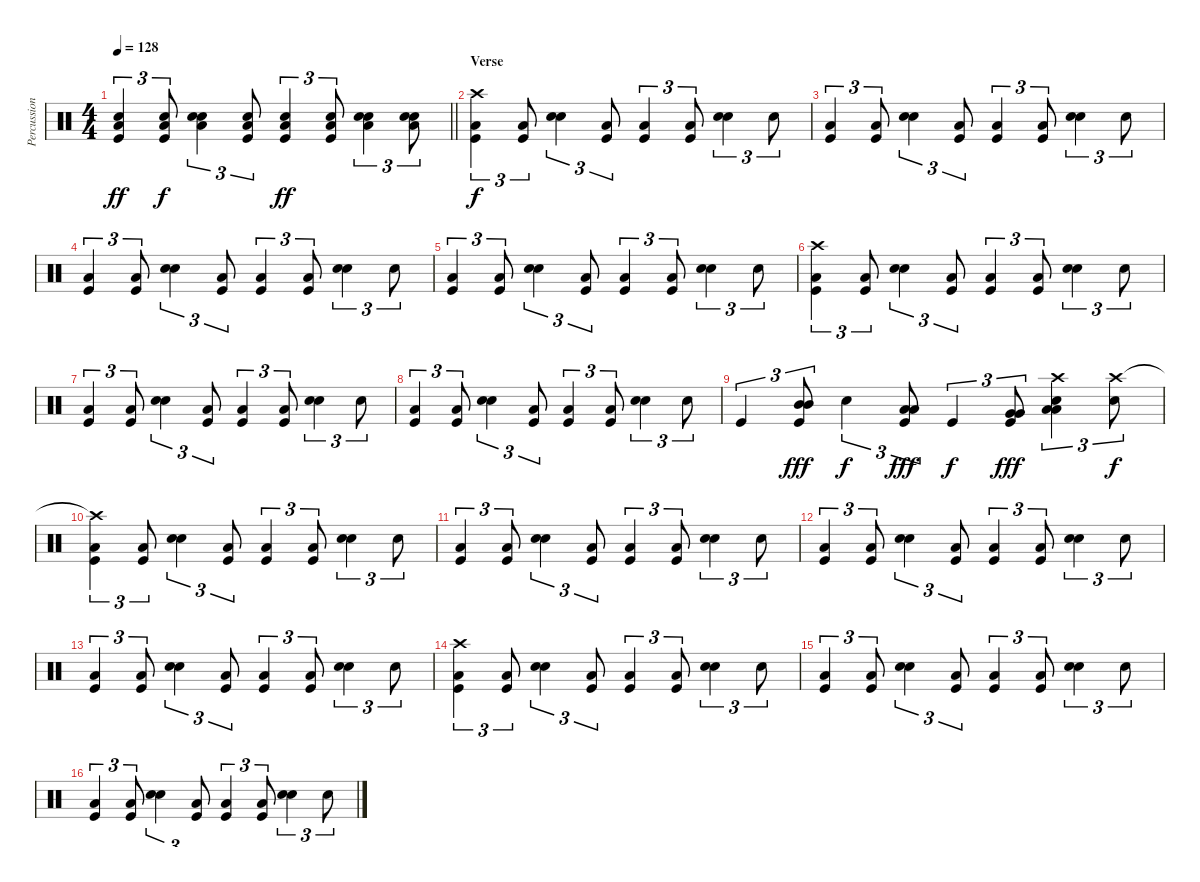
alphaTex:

\track ("Percussion" "Percussion") {instrument percussion}
\staff {score}
\articulation defaults
\ts (4 4)
\tempo 128
\clef neutral
\barLineRight lightlight
\ks c
("Electric Snare (hit)" "Low Floor Tom (hit)" "Kick (hit)").4{tu (3 2) dy ff} ("Electric Snare (hit)" "Low Floor Tom (hit)" "Kick (hit)").8{tu (3 2) dy f} ("Hand Clap (hit)" "Electric Snare (hit)" "Low Floor Tom (hit)").4{tu (3 2)} ("Electric Snare (hit)" "Low Floor Tom (hit)" "Kick (hit)").8{tu (3 2)} ("Electric Snare (hit)" "Low Floor Tom (hit)" "Kick (hit)").4{tu (3 2) dy ff} ("Electric Snare (hit)" "Low Floor Tom (hit)" "Kick (hit)").8{tu (3 2)} ("Hand Clap (hit)" "Electric Snare (hit)" "Low Floor Tom (hit)").4{tu (3 2)} ("Hand Clap (hit)" "Electric Snare (hit)" "Low Floor Tom (hit)").8{tu (3 2)} |
\section ("" "Verse")
("Crash high (hit)" "Low Floor Tom (hit)" "Kick (hit)").4{tu (3 2) dy f} ("Low Floor Tom (hit)" "Kick (hit)").8{tu (3 2)} ("Hand Clap (hit)" "Electric Snare (hit)").4{tu (3 2)} ("Low Floor Tom (hit)" "Kick (hit)").8{tu (3 2)} ("Low Floor Tom (hit)" "Kick (hit)").4{tu (3 2)} ("Low Floor Tom (hit)" "Kick (hit)").8{tu (3 2)} ("Hand Clap (hit)" "Electric Snare (hit)").4{tu (3 2)} "Hand Clap (hit)".8{tu (3 2)} |
("Low Floor Tom (hit)" "Kick (hit)").4{tu (3 2)} ("Low Floor Tom (hit)" "Kick (hit)").8{tu (3 2)} ("Hand Clap (hit)" "Electric Snare (hit)").4{tu (3 2)} ("Low Floor Tom (hit)" "Kick (hit)").8{tu (3 2)} ("Low Floor Tom (hit)" "Kick (hit)").4{tu (3 2)} ("Low Floor Tom (hit)" "Kick (hit)").8{tu (3 2)} ("Hand Clap (hit)" "Electric Snare (hit)").4{tu (3 2)} "Hand Clap (hit)".8{tu (3 2)} |
("Low Floor Tom (hit)" "Kick (hit)").4{tu (3 2)} ("Low Floor Tom (hit)" "Kick (hit)").8{tu (3 2)} ("Hand Clap (hit)" "Electric Snare (hit)").4{tu (3 2)} ("Low Floor Tom (hit)" "Kick (hit)").8{tu (3 2)} ("Low Floor Tom (hit)" "Kick (hit)").4{tu (3 2)} ("Low Floor Tom (hit)" "Kick (hit)").8{tu (3 2)} ("Hand Clap (hit)" "Electric Snare (hit)").4{tu (3 2)} "Hand Clap (hit)".8{tu (3 2)} |
("Low Floor Tom (hit)" "Kick (hit)").4{tu (3 2)} ("Low Floor Tom (hit)" "Kick (hit)").8{tu (3 2)} ("Hand Clap (hit)" "Electric Snare (hit)").4{tu (3 2)} ("Low Floor Tom (hit)" "Kick (hit)").8{tu (3 2)} ("Low Floor Tom (hit)" "Kick (hit)").4{tu (3 2)} ("Low Floor Tom (hit)" "Kick (hit)").8{tu (3 2)} ("Hand Clap (hit)" "Electric Snare (hit)").4{tu (3 2)} "Hand Clap (hit)".8{tu (3 2)} |
("Crash high (hit)" "Low Floor Tom (hit)" "Kick (hit)").4{tu (3 2)} ("Low Floor Tom (hit)" "Kick (hit)").8{tu (3 2)} ("Hand Clap (hit)" "Electric Snare (hit)").4{tu (3 2)} ("Low Floor Tom (hit)" "Kick (hit)").8{tu (3 2)} ("Low Floor Tom (hit)" "Kick (hit)").4{tu (3 2)} ("Low Floor Tom (hit)" "Kick (hit)").8{tu (3 2)} ("Hand Clap (hit)" "Electric Snare (hit)").4{tu (3 2)} "Hand Clap (hit)".8{tu (3 2)} |
("Low Floor Tom (hit)" "Kick (hit)").4{tu (3 2)} ("Low Floor Tom (hit)" "Kick (hit)").8{tu (3 2)} ("Hand Clap (hit)" "Electric Snare (hit)").4{tu (3 2)} ("Low Floor Tom (hit)" "Kick (hit)").8{tu (3 2)} ("Low Floor Tom (hit)" "Kick (hit)").4{tu (3 2)} ("Low Floor Tom (hit)" "Kick (hit)").8{tu (3 2)} ("Hand Clap (hit)" "Electric Snare (hit)").4{tu (3 2)} "Hand Clap (hit)".8{tu (3 2)} |
("Low Floor Tom (hit)" "Kick (hit)").4{tu (3 2)} ("Low Floor Tom (hit)" "Kick (hit)").8{tu (3 2)} ("Hand Clap (hit)" "Electric Snare (hit)").4{tu (3 2)} ("Low Floor Tom (hit)" "Kick (hit)").8{tu (3 2)} ("Low Floor Tom (hit)" "Kick (hit)").4{tu (3 2)} ("Low Floor Tom (hit)" "Kick (hit)").8{tu (3 2)} ("Hand Clap (hit)" "Electric Snare (hit)").4{tu (3 2)} "Hand Clap (hit)".8{tu (3 2)} |
"Kick (hit)".4{tu (3 2)} ("Mid Tom (hit)" "Mid Tom (hit)" "Kick (hit)").8{tu (3 2) dy fff} "Hand Clap (hit)".4{tu (3 2) dy f} ("Low Tom (hit)" "Low Tom (hit)" "Kick (hit)").8{tu (3 2) dy fff} "Kick (hit)".4{tu (3 2) dy f} ("Very Low Tom (hit)" "Very Low Tom (hit)" "Kick (hit)").8{tu (3 2) dy fff} ("Crash high (hit)" "Hand Clap (hit)" "Low Floor Tom (hit)" "Low Floor Tom (hit)").4{tu (3 2)} ("Crash high (hit)" "Hand Clap (hit)").8{tu (3 2) dy f} |
("Crash high (hit)"{t} "Low Floor Tom (hit)" "Kick (hit)").4{tu (3 2)} ("Low Floor Tom (hit)" "Kick (hit)").8{tu (3 2)} ("Hand Clap (hit)" "Electric Snare (hit)").4{tu (3 2)} ("Low Floor Tom (hit)" "Kick (hit)").8{tu (3 2)} ("Low Floor Tom (hit)" "Kick (hit)").4{tu (3 2)} ("Low Floor Tom (hit)" "Kick (hit)").8{tu (3 2)} ("Hand Clap (hit)" "Electric Snare (hit)").4{tu (3 2)} "Hand Clap (hit)".8{tu (3 2)} |
("Low Floor Tom (hit)" "Kick (hit)").4{tu (3 2)} ("Low Floor Tom (hit)" "Kick (hit)").8{tu (3 2)} ("Hand Clap (hit)" "Electric Snare (hit)").4{tu (3 2)} ("Low Floor Tom (hit)" "Kick (hit)").8{tu (3 2)} ("Low Floor Tom (hit)" "Kick (hit)").4{tu (3 2)} ("Low Floor Tom (hit)" "Kick (hit)").8{tu (3 2)} ("Hand Clap (hit)" "Electric Snare (hit)").4{tu (3 2)} "Hand Clap (hit)".8{tu (3 2)} |
("Low Floor Tom (hit)" "Kick (hit)").4{tu (3 2)} ("Low Floor Tom (hit)" "Kick (hit)").8{tu (3 2)} ("Hand Clap (hit)" "Electric Snare (hit)").4{tu (3 2)} ("Low Floor Tom (hit)" "Kick (hit)").8{tu (3 2)} ("Low Floor Tom (hit)" "Kick (hit)").4{tu (3 2)} ("Low Floor Tom (hit)" "Kick (hit)").8{tu (3 2)} ("Hand Clap (hit)" "Electric Snare (hit)").4{tu (3 2)} "Hand Clap (hit)".8{tu (3 2)} |
("Low Floor Tom (hit)" "Kick (hit)").4{tu (3 2)} ("Low Floor Tom (hit)" "Kick (hit)").8{tu (3 2)} ("Hand Clap (hit)" "Electric Snare (hit)").4{tu (3 2)} ("Low Floor Tom (hit)" "Kick (hit)").8{tu (3 2)} ("Low Floor Tom (hit)" "Kick (hit)").4{tu (3 2)} ("Low Floor Tom (hit)" "Kick (hit)").8{tu (3 2)} ("Hand Clap (hit)" "Electric Snare (hit)").4{tu (3 2)} "Hand Clap (hit)".8{tu (3 2)} |
("Crash high (hit)" "Low Floor Tom (hit)" "Kick (hit)").4{tu (3 2)} ("Low Floor Tom (hit)" "Kick (hit)").8{tu (3 2)} ("Hand Clap (hit)" "Electric Snare (hit)").4{tu (3 2)} ("Low Floor Tom (hit)" "Kick (hit)").8{tu (3 2)} ("Low Floor Tom (hit)" "Kick (hit)").4{tu (3 2)} ("Low Floor Tom (hit)" "Kick (hit)").8{tu (3 2)} ("Hand Clap (hit)" "Electric Snare (hit)").4{tu (3 2)} "Hand Clap (hit)".8{tu (3 2)} |
("Low Floor Tom (hit)" "Kick (hit)").4{tu (3 2)} ("Low Floor Tom (hit)" "Kick (hit)").8{tu (3 2)} ("Hand Clap (hit)" "Electric Snare (hit)").4{tu (3 2)} ("Low Floor Tom (hit)" "Kick (hit)").8{tu (3 2)} ("Low Floor Tom (hit)" "Kick (hit)").4{tu (3 2)} ("Low Floor Tom (hit)" "Kick (hit)").8{tu (3 2)} ("Hand Clap (hit)" "Electric Snare (hit)").4{tu (3 2)} "Hand Clap (hit)".8{tu (3 2)} |
("Low Floor Tom (hit)" "Kick (hit)").4{tu (3 2)} ("Low Floor Tom (hit)" "Kick (hit)").8{tu (3 2)} ("Hand Clap (hit)" "Electric Snare (hit)").4{tu (3 2)} ("Low Floor Tom (hit)" "Kick (hit)").8{tu (3 2)} ("Low Floor Tom (hit)" "Kick (hit)").4{tu (3 2)} ("Low Floor Tom (hit)" "Kick (hit)").8{tu (3 2)} ("Hand Clap (hit)" "Electric Snare (hit)").4{tu (3 2)} "Hand Clap (hit)".8{tu (3 2)}
